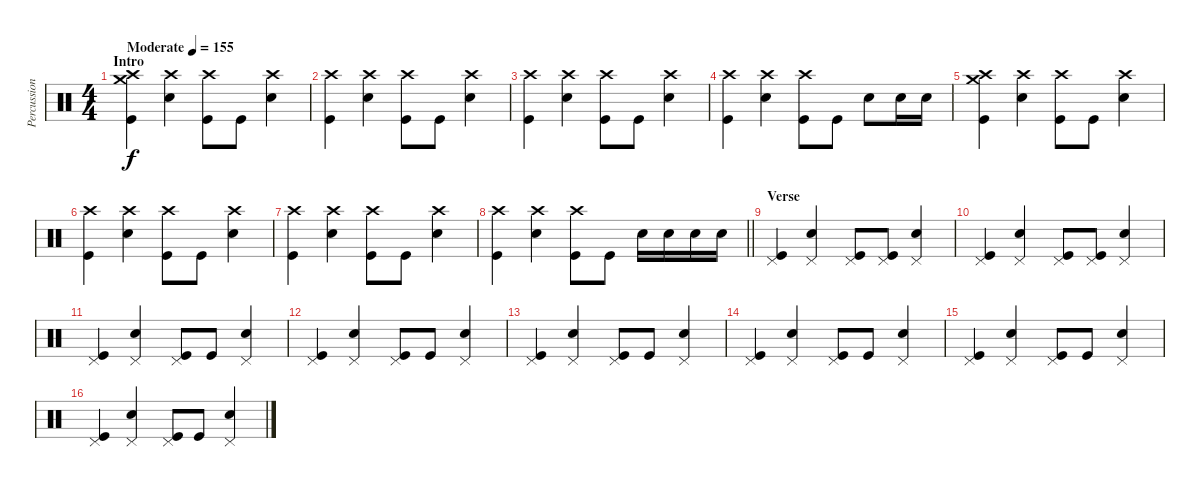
\track ("Percussion" "Percussion") {instrument percussion}
\staff {score}
\articulation defaults
\ts (4 4)
\section ("" "Intro")
\tempo (155 "Moderate")
\clef neutral
\ks c
("Crash high (hit)" "Crash medium (hit)" "Kick (hit)").4{dy f} ("Crash high (hit)" "Electric Snare (hit)").4 ("Crash high (hit)" "Kick (hit)").8 "Kick (hit)".8 ("Crash high (hit)" "Electric Snare (hit)").4 |
("Crash high (hit)" "Kick (hit)").4 ("Crash high (hit)" "Electric Snare (hit)").4 ("Crash high (hit)" "Kick (hit)").8 "Kick (hit)".8 ("Crash high (hit)" "Electric Snare (hit)").4 |
("Crash high (hit)" "Kick (hit)").4 ("Crash high (hit)" "Electric Snare (hit)").4 ("Crash high (hit)" "Kick (hit)").8 "Kick (hit)".8 ("Crash high (hit)" "Electric Snare (hit)").4 |
("Crash high (hit)" "Kick (hit)").4 ("Crash high (hit)" "Electric Snare (hit)").4 ("Crash high (hit)" "Kick (hit)").8 "Kick (hit)".8 "Electric Snare (hit)".8 "Electric Snare (hit)".16 "Electric Snare (hit)".16 |
("Crash high (hit)" "Crash medium (hit)" "Kick (hit)").4 ("Crash high (hit)" "Electric Snare (hit)").4 ("Crash high (hit)" "Kick (hit)").8 "Kick (hit)".8 ("Crash high (hit)" "Electric Snare (hit)").4 |
("Crash high (hit)" "Kick (hit)").4 ("Crash high (hit)" "Electric Snare (hit)").4 ("Crash high (hit)" "Kick (hit)").8 "Kick (hit)".8 ("Crash high (hit)" "Electric Snare (hit)").4 |
("Crash high (hit)" "Kick (hit)").4 ("Crash high (hit)" "Electric Snare (hit)").4 ("Crash high (hit)" "Kick (hit)").8 "Kick (hit)".8 ("Crash high (hit)" "Electric Snare (hit)").4 |
\barLineRight lightlight
("Crash high (hit)" "Kick (hit)").4 ("Crash high (hit)" "Electric Snare (hit)").4 ("Crash high (hit)" "Kick (hit)").8 "Kick (hit)".8 "Electric Snare (hit)".16 "Electric Snare (hit)".16 "Electric Snare (hit)".16 "Electric Snare (hit)".16 |
\section ("" "Verse")
("Pedal Hi-Hat (hit)" "Kick (hit)").4 ("Pedal Hi-Hat (hit)" "Electric Snare (hit)").4 ("Pedal Hi-Hat (hit)" "Kick (hit)").8 ("Pedal Hi-Hat (hit)" "Kick (hit)").8 ("Pedal Hi-Hat (hit)" "Electric Snare (hit)").4 |
("Pedal Hi-Hat (hit)" "Kick (hit)").4 ("Pedal Hi-Hat (hit)" "Electric Snare (hit)").4 ("Pedal Hi-Hat (hit)" "Kick (hit)").8 ("Pedal Hi-Hat (hit)" "Kick (hit)").8 ("Pedal Hi-Hat (hit)" "Electric Snare (hit)").4 |
("Pedal Hi-Hat (hit)" "Kick (hit)").4 ("Pedal Hi-Hat (hit)" "Electric Snare (hit)").4 ("Pedal Hi-Hat (hit)" "Kick (hit)").8 "Kick (hit)".8 ("Pedal Hi-Hat (hit)" "Electric Snare (hit)").4 |
("Pedal Hi-Hat (hit)" "Kick (hit)").4 ("Pedal Hi-Hat (hit)" "Electric Snare (hit)").4 ("Pedal Hi-Hat (hit)" "Kick (hit)").8 "Kick (hit)".8 ("Pedal Hi-Hat (hit)" "Electric Snare (hit)").4 |
("Pedal Hi-Hat (hit)" "Kick (hit)").4 ("Pedal Hi-Hat (hit)" "Electric Snare (hit)").4 ("Pedal Hi-Hat (hit)" "Kick (hit)").8 "Kick (hit)".8 ("Pedal Hi-Hat (hit)" "Electric Snare (hit)").4 |
("Pedal Hi-Hat (hit)" "Kick (hit)").4 ("Pedal Hi-Hat (hit)" "Electric Snare (hit)").4 ("Pedal Hi-Hat (hit)" "Kick (hit)").8 "Kick (hit)".8 ("Pedal Hi-Hat (hit)" "Electric Snare (hit)").4 |
("Pedal Hi-Hat (hit)" "Kick (hit)").4 ("Pedal Hi-Hat (hit)" "Electric Snare (hit)").4 ("Pedal Hi-Hat (hit)" "Kick (hit)").8 "Kick (hit)".8 ("Pedal Hi-Hat (hit)" "Electric Snare (hit)").4 |
("Pedal Hi-Hat (hit)" "Kick (hit)").4 ("Pedal Hi-Hat (hit)" "Electric Snare (hit)").4 ("Pedal Hi-Hat (hit)" "Kick (hit)").8 "Kick (hit)".8 ("Pedal Hi-Hat (hit)" "Electric Snare (hit)").4
